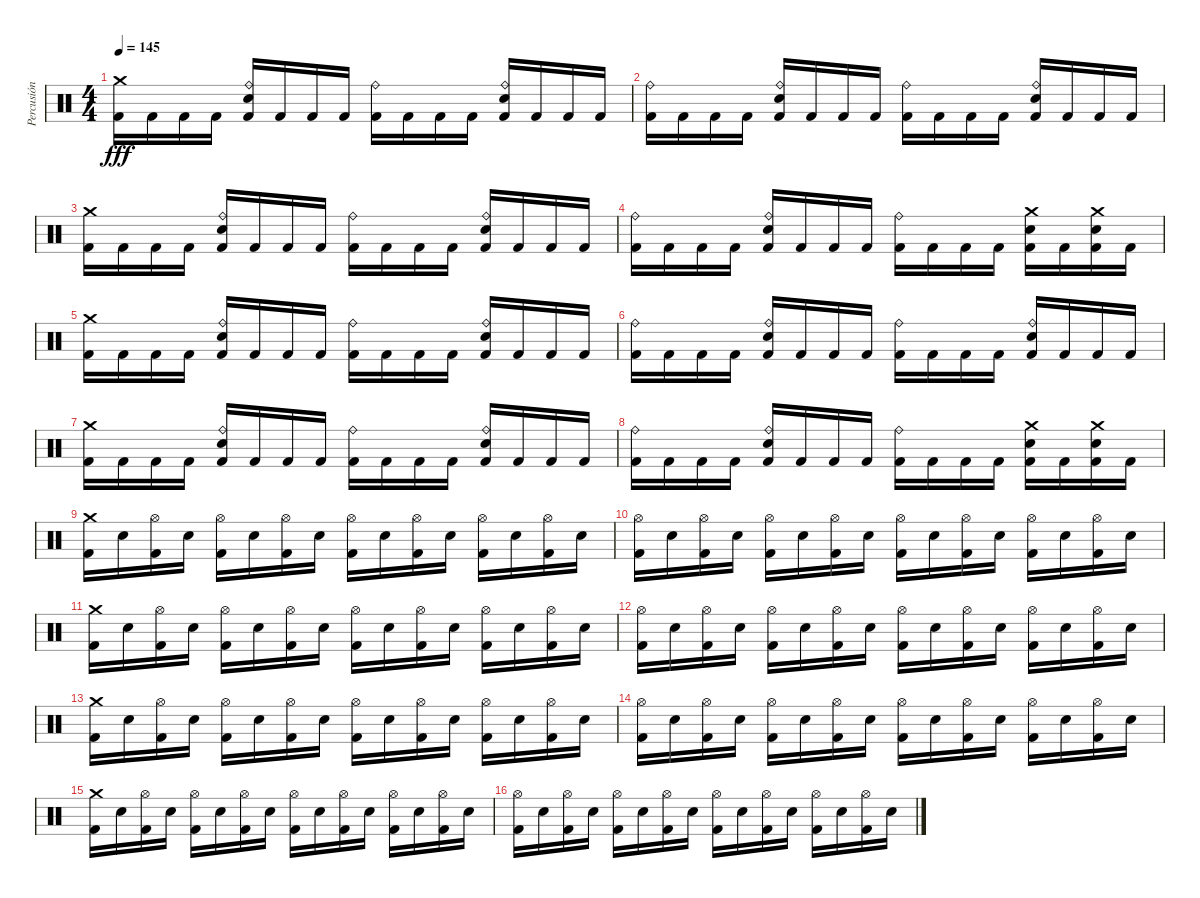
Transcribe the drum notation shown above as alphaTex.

\track ("Percusión" "Percusión") {instrument percussion}
\staff {score}
\articulation defaults
\ts (4 4)
\tempo 145
\clef neutral
\ks c
("Crash medium (hit)" "Kick (hit) 2").16{dy fff} "Kick (hit) 2".16 "Kick (hit) 2".16 "Kick (hit) 2".16 ("Ride (bell)" "Snare (hit) 2" "Kick (hit) 2").16 "Kick (hit) 2".16 "Kick (hit) 2".16 "Kick (hit) 2".16 ("Ride (bell)" "Kick (hit) 2").16 "Kick (hit) 2".16 "Kick (hit) 2".16 "Kick (hit) 2".16 ("Ride (bell)" "Snare (hit) 2" "Kick (hit) 2").16 "Kick (hit) 2".16 "Kick (hit) 2".16 "Kick (hit) 2".16 |
("Ride (bell)" "Kick (hit) 2").16 "Kick (hit) 2".16 "Kick (hit) 2".16 "Kick (hit) 2".16 ("Ride (bell)" "Snare (hit) 2" "Kick (hit) 2").16 "Kick (hit) 2".16 "Kick (hit) 2".16 "Kick (hit) 2".16 ("Ride (bell)" "Kick (hit) 2").16 "Kick (hit) 2".16 "Kick (hit) 2".16 "Kick (hit) 2".16 ("Ride (bell)" "Snare (hit) 2" "Kick (hit) 2").16 "Kick (hit) 2".16 "Kick (hit) 2".16 "Kick (hit) 2".16 |
("Crash medium (hit)" "Kick (hit) 2").16 "Kick (hit) 2".16 "Kick (hit) 2".16 "Kick (hit) 2".16 ("Ride (bell)" "Snare (hit) 2" "Kick (hit) 2").16 "Kick (hit) 2".16 "Kick (hit) 2".16 "Kick (hit) 2".16 ("Ride (bell)" "Kick (hit) 2").16 "Kick (hit) 2".16 "Kick (hit) 2".16 "Kick (hit) 2".16 ("Ride (bell)" "Snare (hit) 2" "Kick (hit) 2").16 "Kick (hit) 2".16 "Kick (hit) 2".16 "Kick (hit) 2".16 |
("Ride (bell)" "Kick (hit) 2").16 "Kick (hit) 2".16 "Kick (hit) 2".16 "Kick (hit) 2".16 ("Ride (bell)" "Snare (hit) 2" "Kick (hit) 2").16 "Kick (hit) 2".16 "Kick (hit) 2".16 "Kick (hit) 2".16 ("Ride (bell)" "Kick (hit) 2").16 "Kick (hit) 2".16 "Kick (hit) 2".16 "Kick (hit) 2".16 ("Crash medium (hit)" "Snare (hit) 2" "Kick (hit) 2").16 "Kick (hit) 2".16 ("Crash medium (hit)" "Snare (hit) 2" "Kick (hit) 2").16 "Kick (hit) 2".16 |
("Crash medium (hit)" "Kick (hit) 2").16 "Kick (hit) 2".16 "Kick (hit) 2".16 "Kick (hit) 2".16 ("Ride (bell)" "Snare (hit) 2" "Kick (hit) 2").16 "Kick (hit) 2".16 "Kick (hit) 2".16 "Kick (hit) 2".16 ("Ride (bell)" "Kick (hit) 2").16 "Kick (hit) 2".16 "Kick (hit) 2".16 "Kick (hit) 2".16 ("Ride (bell)" "Snare (hit) 2" "Kick (hit) 2").16 "Kick (hit) 2".16 "Kick (hit) 2".16 "Kick (hit) 2".16 |
("Ride (bell)" "Kick (hit) 2").16 "Kick (hit) 2".16 "Kick (hit) 2".16 "Kick (hit) 2".16 ("Ride (bell)" "Snare (hit) 2" "Kick (hit) 2").16 "Kick (hit) 2".16 "Kick (hit) 2".16 "Kick (hit) 2".16 ("Ride (bell)" "Kick (hit) 2").16 "Kick (hit) 2".16 "Kick (hit) 2".16 "Kick (hit) 2".16 ("Ride (bell)" "Snare (hit) 2" "Kick (hit) 2").16 "Kick (hit) 2".16 "Kick (hit) 2".16 "Kick (hit) 2".16 |
("Crash medium (hit)" "Kick (hit) 2").16 "Kick (hit) 2".16 "Kick (hit) 2".16 "Kick (hit) 2".16 ("Ride (bell)" "Snare (hit) 2" "Kick (hit) 2").16 "Kick (hit) 2".16 "Kick (hit) 2".16 "Kick (hit) 2".16 ("Ride (bell)" "Kick (hit) 2").16 "Kick (hit) 2".16 "Kick (hit) 2".16 "Kick (hit) 2".16 ("Ride (bell)" "Snare (hit) 2" "Kick (hit) 2").16 "Kick (hit) 2".16 "Kick (hit) 2".16 "Kick (hit) 2".16 |
("Ride (bell)" "Kick (hit) 2").16 "Kick (hit) 2".16 "Kick (hit) 2".16 "Kick (hit) 2".16 ("Ride (bell)" "Snare (hit) 2" "Kick (hit) 2").16 "Kick (hit) 2".16 "Kick (hit) 2".16 "Kick (hit) 2".16 ("Ride (bell)" "Kick (hit) 2").16 "Kick (hit) 2".16 "Kick (hit) 2".16 "Kick (hit) 2".16 ("Crash medium (hit)" "Snare (hit) 2" "Kick (hit) 2").16 "Kick (hit) 2".16 ("Crash medium (hit)" "Snare (hit) 2" "Kick (hit) 2").16 "Kick (hit) 2".16 |
("Crash medium (hit)" "Kick (hit) 2").16 "Snare (hit) 2".16 ("Hi-Hat (open)" "Kick (hit) 2").16 "Snare (hit) 2".16 ("Hi-Hat (open)" "Kick (hit) 2").16 "Snare (hit) 2".16 ("Hi-Hat (open)" "Kick (hit) 2").16 "Snare (hit) 2".16 ("Hi-Hat (open)" "Kick (hit) 2").16 "Snare (hit) 2".16 ("Hi-Hat (open)" "Kick (hit) 2").16 "Snare (hit) 2".16 ("Hi-Hat (open)" "Kick (hit) 2").16 "Snare (hit) 2".16 ("Hi-Hat (open)" "Kick (hit) 2").16 "Snare (hit) 2".16 |
("Hi-Hat (open)" "Kick (hit) 2").16 "Snare (hit) 2".16 ("Hi-Hat (open)" "Kick (hit) 2").16 "Snare (hit) 2".16 ("Hi-Hat (open)" "Kick (hit) 2").16 "Snare (hit) 2".16 ("Hi-Hat (open)" "Kick (hit) 2").16 "Snare (hit) 2".16 ("Hi-Hat (open)" "Kick (hit) 2").16 "Snare (hit) 2".16 ("Hi-Hat (open)" "Kick (hit) 2").16 "Snare (hit) 2".16 ("Hi-Hat (open)" "Kick (hit) 2").16 "Snare (hit) 2".16 ("Hi-Hat (open)" "Kick (hit) 2").16 "Snare (hit) 2".16 |
("Crash medium (hit)" "Kick (hit) 2").16 "Snare (hit) 2".16 ("Hi-Hat (open)" "Kick (hit) 2").16 "Snare (hit) 2".16 ("Hi-Hat (open)" "Kick (hit) 2").16 "Snare (hit) 2".16 ("Hi-Hat (open)" "Kick (hit) 2").16 "Snare (hit) 2".16 ("Hi-Hat (open)" "Kick (hit) 2").16 "Snare (hit) 2".16 ("Hi-Hat (open)" "Kick (hit) 2").16 "Snare (hit) 2".16 ("Hi-Hat (open)" "Kick (hit) 2").16 "Snare (hit) 2".16 ("Hi-Hat (open)" "Kick (hit) 2").16 "Snare (hit) 2".16 |
("Hi-Hat (open)" "Kick (hit) 2").16 "Snare (hit) 2".16 ("Hi-Hat (open)" "Kick (hit) 2").16 "Snare (hit) 2".16 ("Hi-Hat (open)" "Kick (hit) 2").16 "Snare (hit) 2".16 ("Hi-Hat (open)" "Kick (hit) 2").16 "Snare (hit) 2".16 ("Hi-Hat (open)" "Kick (hit) 2").16 "Snare (hit) 2".16 ("Hi-Hat (open)" "Kick (hit) 2").16 "Snare (hit) 2".16 ("Hi-Hat (open)" "Kick (hit) 2").16 "Snare (hit) 2".16 ("Hi-Hat (open)" "Kick (hit) 2").16 "Snare (hit) 2".16 |
("Crash medium (hit)" "Kick (hit) 2").16 "Snare (hit) 2".16 ("Hi-Hat (open)" "Kick (hit) 2").16 "Snare (hit) 2".16 ("Hi-Hat (open)" "Kick (hit) 2").16 "Snare (hit) 2".16 ("Hi-Hat (open)" "Kick (hit) 2").16 "Snare (hit) 2".16 ("Hi-Hat (open)" "Kick (hit) 2").16 "Snare (hit) 2".16 ("Hi-Hat (open)" "Kick (hit) 2").16 "Snare (hit) 2".16 ("Hi-Hat (open)" "Kick (hit) 2").16 "Snare (hit) 2".16 ("Hi-Hat (open)" "Kick (hit) 2").16 "Snare (hit) 2".16 |
("Hi-Hat (open)" "Kick (hit) 2").16 "Snare (hit) 2".16 ("Hi-Hat (open)" "Kick (hit) 2").16 "Snare (hit) 2".16 ("Hi-Hat (open)" "Kick (hit) 2").16 "Snare (hit) 2".16 ("Hi-Hat (open)" "Kick (hit) 2").16 "Snare (hit) 2".16 ("Hi-Hat (open)" "Kick (hit) 2").16 "Snare (hit) 2".16 ("Hi-Hat (open)" "Kick (hit) 2").16 "Snare (hit) 2".16 ("Hi-Hat (open)" "Kick (hit) 2").16 "Snare (hit) 2".16 ("Hi-Hat (open)" "Kick (hit) 2").16 "Snare (hit) 2".16 |
("Crash medium (hit)" "Kick (hit) 2").16 "Snare (hit) 2".16 ("Hi-Hat (open)" "Kick (hit) 2").16 "Snare (hit) 2".16 ("Hi-Hat (open)" "Kick (hit) 2").16 "Snare (hit) 2".16 ("Hi-Hat (open)" "Kick (hit) 2").16 "Snare (hit) 2".16 ("Hi-Hat (open)" "Kick (hit) 2").16 "Snare (hit) 2".16 ("Hi-Hat (open)" "Kick (hit) 2").16 "Snare (hit) 2".16 ("Hi-Hat (open)" "Kick (hit) 2").16 "Snare (hit) 2".16 ("Hi-Hat (open)" "Kick (hit) 2").16 "Snare (hit) 2".16 |
("Hi-Hat (open)" "Kick (hit) 2").16 "Snare (hit) 2".16 ("Hi-Hat (open)" "Kick (hit) 2").16 "Snare (hit) 2".16 ("Hi-Hat (open)" "Kick (hit) 2").16 "Snare (hit) 2".16 ("Hi-Hat (open)" "Kick (hit) 2").16 "Snare (hit) 2".16 ("Hi-Hat (open)" "Kick (hit) 2").16 "Snare (hit) 2".16 ("Hi-Hat (open)" "Kick (hit) 2").16 "Snare (hit) 2".16 ("Hi-Hat (open)" "Kick (hit) 2").16 "Snare (hit) 2".16 ("Hi-Hat (open)" "Kick (hit) 2").16 "Snare (hit) 2".16
